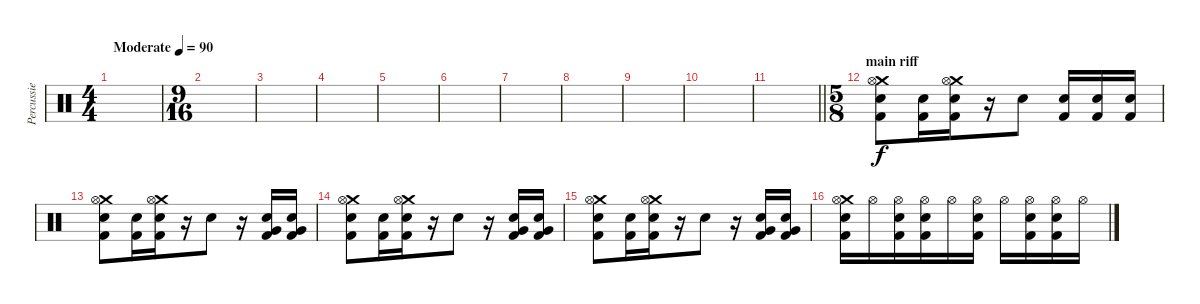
\track ("Percussie" "Percussie") {instrument percussion}
\staff {score}
\articulation defaults
\ts (4 4)
\tempo (90 "Moderate")
\clef neutral
\ks c
|
\ts (9 16)
|
|
|
|
|
|
|
|
|
\barLineRight lightlight
|
\ts (5 8)
\section ("" "main riff")
("Crash medium (hit)" "Hi-Hat (open)" "Snare (hit) 2" "Kick (hit) 2").8 ("Snare (hit) 2" "Kick (hit) 2").16 ("Crash medium (hit)" "Hi-Hat (open)" "Snare (hit) 2" "Kick (hit) 2").16 r.16 "Snare (hit) 2".8 ("Snare (hit) 2" "Kick (hit) 2").16 ("Snare (hit) 2" "Kick (hit) 2").16 ("Snare (hit) 2" "Kick (hit) 2").16 |
("Crash medium (hit)" "Hi-Hat (open)" "Snare (hit) 2" "Kick (hit) 2").8 ("Snare (hit) 2" "Kick (hit) 2").16 ("Crash medium (hit)" "Hi-Hat (open)" "Snare (hit) 2" "Kick (hit) 2").16 r.16 "Snare (hit) 2".8 r.16 ("Very Low Tom (hit)" "Snare (hit) 2" "Kick (hit) 2").16 ("Very Low Tom (hit)" "Snare (hit) 2" "Kick (hit) 2").16 |
("Crash medium (hit)" "Hi-Hat (open)" "Snare (hit) 2" "Kick (hit) 2").8 ("Snare (hit) 2" "Kick (hit) 2").16 ("Crash medium (hit)" "Hi-Hat (open)" "Snare (hit) 2" "Kick (hit) 2").16 r.16 "Snare (hit) 2".8 r.16 ("Very Low Tom (hit)" "Snare (hit) 2" "Kick (hit) 2").16 ("Very Low Tom (hit)" "Snare (hit) 2" "Kick (hit) 2").16 |
("Crash medium (hit)" "Hi-Hat (open)" "Snare (hit) 2" "Kick (hit) 2").8 ("Snare (hit) 2" "Kick (hit) 2").16 ("Crash medium (hit)" "Hi-Hat (open)" "Snare (hit) 2" "Kick (hit) 2").16 r.16 "Snare (hit) 2".8 r.16 ("Very Low Tom (hit)" "Snare (hit) 2" "Kick (hit) 2").16 ("Very Low Tom (hit)" "Snare (hit) 2" "Kick (hit) 2").16 |
("Crash medium (hit)" "Hi-Hat (open)" "Snare (hit) 2" "Kick (hit) 2").16 "Hi-Hat (open)".16 ("Hi-Hat (open)" "Snare (hit) 2" "Kick (hit) 2").16 ("Hi-Hat (open)" "Snare (hit) 2" "Kick (hit) 2").16 "Hi-Hat (open)".16 ("Hi-Hat (open)" "Snare (hit) 2" "Kick (hit) 2").16 "Hi-Hat (open)".16 ("Hi-Hat (open)" "Snare (hit) 2" "Kick (hit) 2").16 ("Hi-Hat (open)" "Snare (hit) 2" "Kick (hit) 2").16 "Hi-Hat (open)".16
